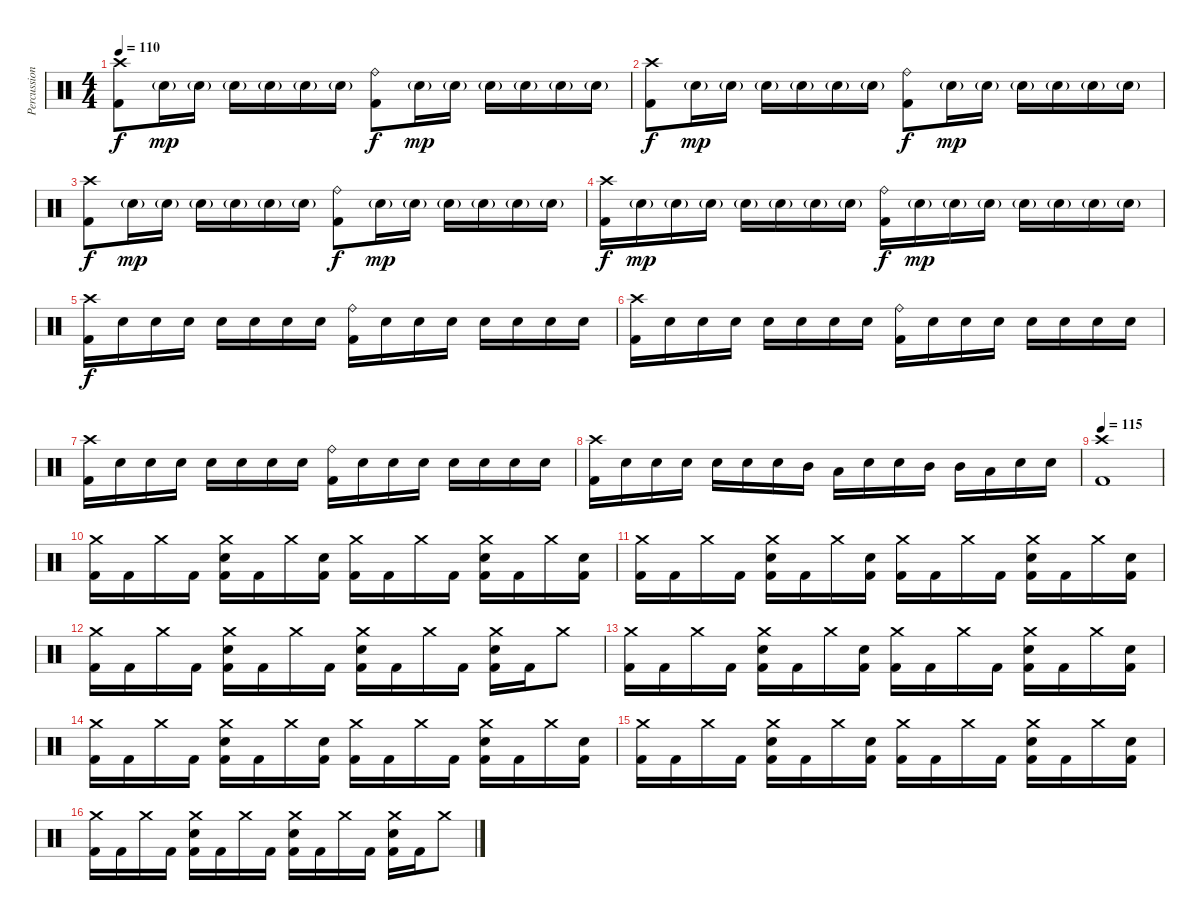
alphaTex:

\track ("Percussion" "Percussion") {instrument percussion}
\staff {score}
\articulation defaults
\ts (4 4)
\tempo 110
\clef neutral
\ks c
("Kick (hit) 2" "Crash high (hit)").8{dy f} "Snare (hit) 2"{g}.16{dy mp} "Snare (hit) 2"{g}.16 "Snare (hit) 2"{g}.16 "Snare (hit) 2"{g}.16 "Snare (hit) 2"{g}.16 "Snare (hit) 2"{g}.16 ("Kick (hit) 2" "Ride (bell)").8{dy f} "Snare (hit) 2"{g}.16{dy mp} "Snare (hit) 2"{g}.16 "Snare (hit) 2"{g}.16 "Snare (hit) 2"{g}.16 "Snare (hit) 2"{g}.16 "Snare (hit) 2"{g}.16 |
("Kick (hit) 2" "Crash high (hit)").8{dy f} "Snare (hit) 2"{g}.16{dy mp} "Snare (hit) 2"{g}.16 "Snare (hit) 2"{g}.16 "Snare (hit) 2"{g}.16 "Snare (hit) 2"{g}.16 "Snare (hit) 2"{g}.16 ("Kick (hit) 2" "Ride (bell)").8{dy f} "Snare (hit) 2"{g}.16{dy mp} "Snare (hit) 2"{g}.16 "Snare (hit) 2"{g}.16 "Snare (hit) 2"{g}.16 "Snare (hit) 2"{g}.16 "Snare (hit) 2"{g}.16 |
("Kick (hit) 2" "Crash high (hit)").8{dy f} "Snare (hit) 2"{g}.16{dy mp} "Snare (hit) 2"{g}.16 "Snare (hit) 2"{g}.16 "Snare (hit) 2"{g}.16 "Snare (hit) 2"{g}.16 "Snare (hit) 2"{g}.16 ("Kick (hit) 2" "Ride (bell)").8{dy f} "Snare (hit) 2"{g}.16{dy mp} "Snare (hit) 2"{g}.16 "Snare (hit) 2"{g}.16 "Snare (hit) 2"{g}.16 "Snare (hit) 2"{g}.16 "Snare (hit) 2"{g}.16 |
("Kick (hit) 2" "Crash high (hit)").16{dy f} "Snare (hit) 2"{g}.16{dy mp} "Snare (hit) 2"{g}.16 "Snare (hit) 2"{g}.16 "Snare (hit) 2"{g}.16 "Snare (hit) 2"{g}.16 "Snare (hit) 2"{g}.16 "Snare (hit) 2"{g}.16 ("Kick (hit) 2" "Ride (bell)").16{dy f} "Snare (hit) 2"{g}.16{dy mp} "Snare (hit) 2"{g}.16 "Snare (hit) 2"{g}.16 "Snare (hit) 2"{g}.16 "Snare (hit) 2"{g}.16 "Snare (hit) 2"{g}.16 "Snare (hit) 2"{g}.16 |
("Kick (hit) 2" "Crash high (hit)").16{dy f} "Snare (hit) 2".16{volume 13} "Snare (hit) 2".16 "Snare (hit) 2".16 "Snare (hit) 2".16 "Snare (hit) 2".16 "Snare (hit) 2".16 "Snare (hit) 2".16 ("Kick (hit) 2" "Ride (bell)").16{volume 15} "Snare (hit) 2".16{volume 13} "Snare (hit) 2".16 "Snare (hit) 2".16 "Snare (hit) 2".16 "Snare (hit) 2".16 "Snare (hit) 2".16 "Snare (hit) 2".16 |
("Kick (hit) 2" "Crash high (hit)").16 "Snare (hit) 2".16{volume 14} "Snare (hit) 2".16 "Snare (hit) 2".16 "Snare (hit) 2".16 "Snare (hit) 2".16 "Snare (hit) 2".16 "Snare (hit) 2".16 ("Kick (hit) 2" "Ride (bell)").16{volume 15} "Snare (hit) 2".16{volume 14} "Snare (hit) 2".16 "Snare (hit) 2".16 "Snare (hit) 2".16 "Snare (hit) 2".16 "Snare (hit) 2".16 "Snare (hit) 2".16 |
("Kick (hit) 2" "Crash high (hit)").16 "Snare (hit) 2".16{volume 15} "Snare (hit) 2".16 "Snare (hit) 2".16 "Snare (hit) 2".16 "Snare (hit) 2".16 "Snare (hit) 2".16 "Snare (hit) 2".16 ("Kick (hit) 2" "Ride (bell)").16{volume 15} "Snare (hit) 2".16{volume 15} "Snare (hit) 2".16 "Snare (hit) 2".16 "Snare (hit) 2".16 "Snare (hit) 2".16 "Snare (hit) 2".16 "Snare (hit) 2".16 |
("Kick (hit) 2" "Crash high (hit)").16{volume 15} "Snare (hit) 2".16{volume 16} "Snare (hit) 2".16 "Snare (hit) 2".16 "Snare (hit) 2".16 "Snare (hit) 2".16 "Snare (hit) 2".16 "Mid Tom (hit)".16 "Low Tom (hit)".16 "Snare (hit) 2".16 "Snare (hit) 2".16 "Mid Tom (hit)".16 "Mid Tom (hit)".16 "Low Tom (hit)".16 "Snare (hit) 2".16 "Snare (hit) 2".16 |
\tempo 115
("Kick (hit) 2" "Crash high (hit)").1 |
("Kick (hit) 2" "Crash medium (hit)").16 "Kick (hit) 2".16 "Crash medium (hit)".16 "Kick (hit) 2".16 ("Snare (hit) 2" "Kick (hit) 2" "Crash medium (hit)").16 "Kick (hit) 2".16 "Crash medium (hit)".16 ("Snare (hit) 2" "Kick (hit) 2").16 ("Kick (hit) 2" "Crash medium (hit)").16 "Kick (hit) 2".16 "Crash medium (hit)".16 "Kick (hit) 2".16 ("Snare (hit) 2" "Kick (hit) 2" "Crash medium (hit)").16 "Kick (hit) 2".16 "Crash medium (hit)".16 ("Snare (hit) 2" "Kick (hit) 2").16 |
("Kick (hit) 2" "Crash medium (hit)").16 "Kick (hit) 2".16 "Crash medium (hit)".16 "Kick (hit) 2".16 ("Snare (hit) 2" "Kick (hit) 2" "Crash medium (hit)").16 "Kick (hit) 2".16 "Crash medium (hit)".16 ("Snare (hit) 2" "Kick (hit) 2").16 ("Kick (hit) 2" "Crash medium (hit)").16 "Kick (hit) 2".16 "Crash medium (hit)".16 "Kick (hit) 2".16 ("Snare (hit) 2" "Kick (hit) 2" "Crash medium (hit)").16 "Kick (hit) 2".16 "Crash medium (hit)".16 ("Snare (hit) 2" "Kick (hit) 2").16 |
("Kick (hit) 2" "Crash medium (hit)").16 "Kick (hit) 2".16 "Crash medium (hit)".16 "Kick (hit) 2".16 ("Snare (hit) 2" "Kick (hit) 2" "Crash medium (hit)").16 "Kick (hit) 2".16 "Crash medium (hit)".16 "Kick (hit) 2".16 ("Snare (hit) 2" "Kick (hit) 2" "Crash medium (hit)").16 "Kick (hit) 2".16 "Crash medium (hit)".16 "Kick (hit) 2".16 ("Snare (hit) 2" "Kick (hit) 2" "Crash medium (hit)").16 "Kick (hit) 2".16 "Crash medium (hit)".8 |
("Kick (hit) 2" "Crash medium (hit)").16 "Kick (hit) 2".16 "Crash medium (hit)".16 "Kick (hit) 2".16 ("Snare (hit) 2" "Kick (hit) 2" "Crash medium (hit)").16 "Kick (hit) 2".16 "Crash medium (hit)".16 ("Snare (hit) 2" "Kick (hit) 2").16 ("Kick (hit) 2" "Crash medium (hit)").16 "Kick (hit) 2".16 "Crash medium (hit)".16 "Kick (hit) 2".16 ("Snare (hit) 2" "Kick (hit) 2" "Crash medium (hit)").16 "Kick (hit) 2".16 "Crash medium (hit)".16 ("Snare (hit) 2" "Kick (hit) 2").16 |
("Kick (hit) 2" "Crash medium (hit)").16 "Kick (hit) 2".16 "Crash medium (hit)".16 "Kick (hit) 2".16 ("Snare (hit) 2" "Kick (hit) 2" "Crash medium (hit)").16 "Kick (hit) 2".16 "Crash medium (hit)".16 ("Snare (hit) 2" "Kick (hit) 2").16 ("Kick (hit) 2" "Crash medium (hit)").16 "Kick (hit) 2".16 "Crash medium (hit)".16 "Kick (hit) 2".16 ("Snare (hit) 2" "Kick (hit) 2" "Crash medium (hit)").16 "Kick (hit) 2".16 "Crash medium (hit)".16 ("Snare (hit) 2" "Kick (hit) 2").16 |
("Kick (hit) 2" "Crash medium (hit)").16 "Kick (hit) 2".16 "Crash medium (hit)".16 "Kick (hit) 2".16 ("Snare (hit) 2" "Kick (hit) 2" "Crash medium (hit)").16 "Kick (hit) 2".16 "Crash medium (hit)".16 ("Snare (hit) 2" "Kick (hit) 2").16 ("Kick (hit) 2" "Crash medium (hit)").16 "Kick (hit) 2".16 "Crash medium (hit)".16 "Kick (hit) 2".16 ("Snare (hit) 2" "Kick (hit) 2" "Crash medium (hit)").16 "Kick (hit) 2".16 "Crash medium (hit)".16 ("Snare (hit) 2" "Kick (hit) 2").16 |
("Kick (hit) 2" "Crash medium (hit)").16 "Kick (hit) 2".16 "Crash medium (hit)".16 "Kick (hit) 2".16 ("Snare (hit) 2" "Kick (hit) 2" "Crash medium (hit)").16 "Kick (hit) 2".16 "Crash medium (hit)".16 "Kick (hit) 2".16 ("Snare (hit) 2" "Kick (hit) 2" "Crash medium (hit)").16 "Kick (hit) 2".16 "Crash medium (hit)".16 "Kick (hit) 2".16 ("Snare (hit) 2" "Kick (hit) 2" "Crash medium (hit)").16 "Kick (hit) 2".16 "Crash medium (hit)".8
